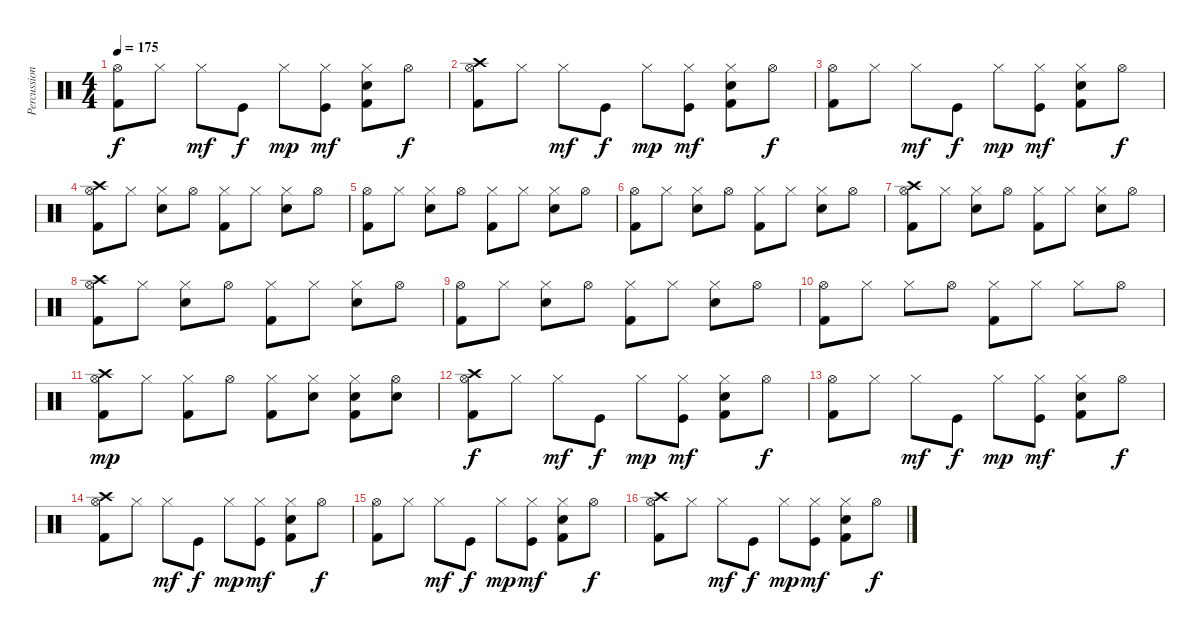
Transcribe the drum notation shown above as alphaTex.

\track ("Percussion" "Percussion") {instrument percussion}
\staff {score}
\articulation defaults
\ts (4 4)
\tempo 175
\clef neutral
\ks c
("Kick (hit) 2" "Hi-Hat (open)").8{dy f} "Hi-Hat (closed)".8 "Hi-Hat (closed)".8{dy mf} "Kick (hit)".8{dy f} "Hi-Hat (closed)".8{dy mp} ("Kick (hit)" "Hi-Hat (closed)").8{dy mf} ("Kick (hit) 2" "Electric Snare (hit)" "Hi-Hat (closed)").8 "Hi-Hat (open)".8{dy f} |
("Kick (hit) 2" "Hi-Hat (open)" "Crash high (hit)").8 "Hi-Hat (closed)".8 "Hi-Hat (closed)".8{dy mf} "Kick (hit)".8{dy f} "Hi-Hat (closed)".8{dy mp} ("Kick (hit)" "Hi-Hat (closed)").8{dy mf} ("Kick (hit) 2" "Electric Snare (hit)" "Hi-Hat (closed)").8 "Hi-Hat (open)".8{dy f} |
("Kick (hit) 2" "Hi-Hat (open)").8 "Hi-Hat (closed)".8 "Hi-Hat (closed)".8{dy mf} "Kick (hit)".8{dy f} "Hi-Hat (closed)".8{dy mp} ("Kick (hit)" "Hi-Hat (closed)").8{dy mf} ("Kick (hit) 2" "Electric Snare (hit)" "Hi-Hat (closed)").8 "Hi-Hat (open)".8{dy f} |
("Kick (hit) 2" "Hi-Hat (open)" "Crash high (hit)").8 "Hi-Hat (closed)".8 ("Snare (hit) 2" "Hi-Hat (closed)").8 "Hi-Hat (open)".8 ("Kick (hit) 2" "Hi-Hat (closed)").8 "Hi-Hat (closed)".8 ("Snare (hit) 2" "Hi-Hat (closed)").8 "Hi-Hat (open)".8 |
("Kick (hit) 2" "Hi-Hat (open)").8 "Hi-Hat (closed)".8 ("Snare (hit) 2" "Hi-Hat (closed)").8 "Hi-Hat (open)".8 ("Kick (hit) 2" "Hi-Hat (closed)").8 "Hi-Hat (closed)".8 ("Snare (hit) 2" "Hi-Hat (closed)").8 "Hi-Hat (open)".8 |
("Kick (hit) 2" "Hi-Hat (open)").8 "Hi-Hat (closed)".8 ("Snare (hit) 2" "Hi-Hat (closed)").8 "Hi-Hat (open)".8 ("Kick (hit) 2" "Hi-Hat (closed)").8 "Hi-Hat (closed)".8 ("Snare (hit) 2" "Hi-Hat (closed)").8 "Hi-Hat (open)".8 |
("Kick (hit) 2" "Hi-Hat (open)" "Crash high (hit)").8 "Hi-Hat (closed)".8 ("Snare (hit) 2" "Hi-Hat (closed)").8 "Hi-Hat (open)".8 ("Kick (hit) 2" "Hi-Hat (closed)").8 "Hi-Hat (closed)".8 ("Snare (hit) 2" "Hi-Hat (closed)").8 "Hi-Hat (open)".8 |
("Kick (hit) 2" "Hi-Hat (open)" "Crash high (hit)").8 "Hi-Hat (closed)".8 ("Snare (hit) 2" "Hi-Hat (closed)").8 "Hi-Hat (open)".8 ("Kick (hit) 2" "Hi-Hat (closed)").8 "Hi-Hat (closed)".8 ("Snare (hit) 2" "Hi-Hat (closed)").8 "Hi-Hat (open)".8 |
("Kick (hit) 2" "Hi-Hat (open)").8 "Hi-Hat (closed)".8 ("Snare (hit) 2" "Hi-Hat (closed)").8 "Hi-Hat (open)".8 ("Kick (hit) 2" "Hi-Hat (closed)").8 "Hi-Hat (closed)".8 ("Snare (hit) 2" "Hi-Hat (closed)").8 "Hi-Hat (open)".8 |
("Kick (hit) 2" "Hi-Hat (open)").8 "Hi-Hat (closed)".8 "Hi-Hat (closed)".8 "Hi-Hat (open)".8 ("Kick (hit) 2" "Hi-Hat (closed)").8 "Hi-Hat (closed)".8 "Hi-Hat (closed)".8 "Hi-Hat (open)".8 |
("Hi-Hat (open)" "Crash high (hit)" "Kick (hit) 2").8{dy mp} "Hi-Hat (closed)".8 ("Hi-Hat (closed)" "Kick (hit) 2").8 "Hi-Hat (open)".8 ("Hi-Hat (closed)" "Kick (hit) 2").8 ("Hi-Hat (closed)" "Snare (hit) 2").8 ("Hi-Hat (closed)" "Kick (hit) 2" "Electric Snare (hit)").8 ("Hi-Hat (open)" "Snare (hit) 2").8 |
("Kick (hit) 2" "Hi-Hat (open)" "Crash high (hit)").8{dy f} "Hi-Hat (closed)".8 "Hi-Hat (closed)".8{dy mf} "Kick (hit)".8{dy f} "Hi-Hat (closed)".8{dy mp} ("Kick (hit)" "Hi-Hat (closed)").8{dy mf} ("Kick (hit) 2" "Electric Snare (hit)" "Hi-Hat (closed)").8 "Hi-Hat (open)".8{dy f} |
("Kick (hit) 2" "Hi-Hat (open)").8 "Hi-Hat (closed)".8 "Hi-Hat (closed)".8{dy mf} "Kick (hit)".8{dy f} "Hi-Hat (closed)".8{dy mp} ("Kick (hit)" "Hi-Hat (closed)").8{dy mf} ("Kick (hit) 2" "Electric Snare (hit)" "Hi-Hat (closed)").8 "Hi-Hat (open)".8{dy f} |
("Kick (hit) 2" "Hi-Hat (open)" "Crash high (hit)").8 "Hi-Hat (closed)".8 "Hi-Hat (closed)".8{dy mf} "Kick (hit)".8{dy f} "Hi-Hat (closed)".8{dy mp} ("Kick (hit)" "Hi-Hat (closed)").8{dy mf} ("Kick (hit) 2" "Electric Snare (hit)" "Hi-Hat (closed)").8 "Hi-Hat (open)".8{dy f} |
("Kick (hit) 2" "Hi-Hat (open)").8 "Hi-Hat (closed)".8 "Hi-Hat (closed)".8{dy mf} "Kick (hit)".8{dy f} "Hi-Hat (closed)".8{dy mp} ("Kick (hit)" "Hi-Hat (closed)").8{dy mf} ("Kick (hit) 2" "Electric Snare (hit)" "Hi-Hat (closed)").8 "Hi-Hat (open)".8{dy f} |
("Kick (hit) 2" "Hi-Hat (open)" "Crash high (hit)").8 "Hi-Hat (closed)".8 "Hi-Hat (closed)".8{dy mf} "Kick (hit)".8{dy f} "Hi-Hat (closed)".8{dy mp} ("Kick (hit)" "Hi-Hat (closed)").8{dy mf} ("Kick (hit) 2" "Electric Snare (hit)" "Hi-Hat (closed)").8 "Hi-Hat (open)".8{dy f}
